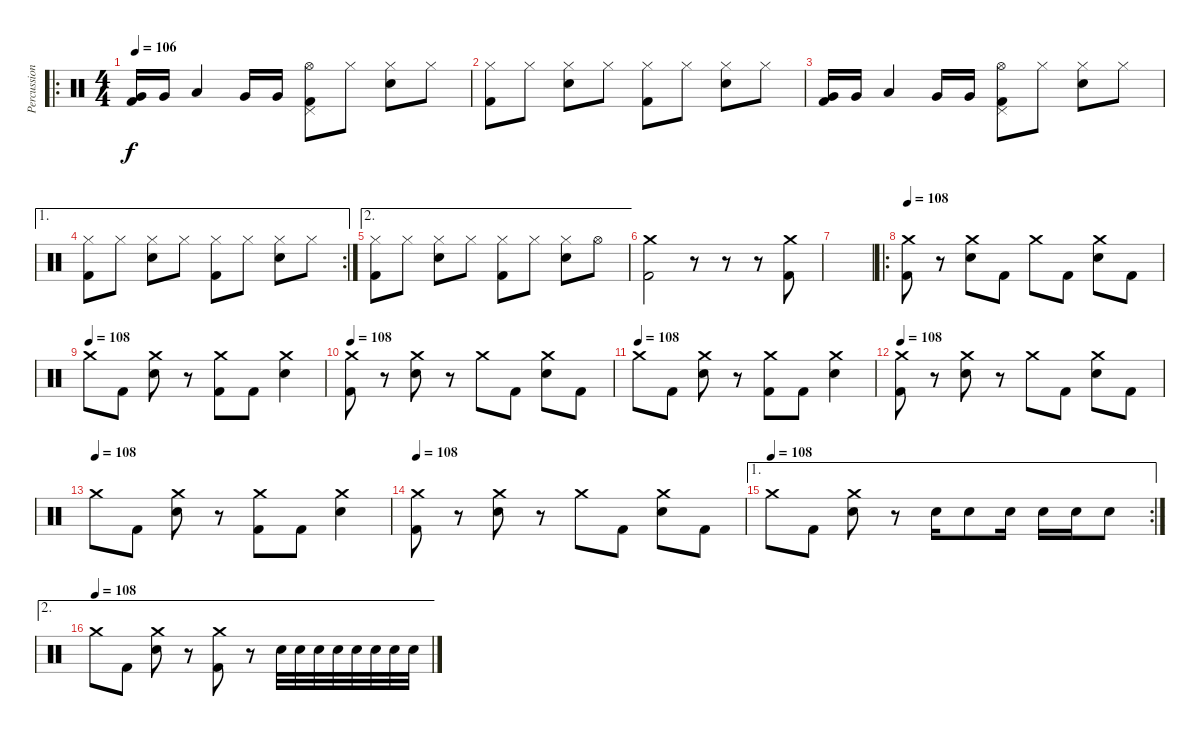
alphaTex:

\track ("Percussion" "Percussion") {instrument percussion}
\staff {score}
\articulation defaults
\ro
\ts (4 4)
\tempo 106
\clef neutral
\ks c
("Very Low Tom (hit)" "Kick (hit) 2").16{dy f} "Very Low Tom (hit)".16 "Low Tom (hit)".4 "Very Low Tom (hit)".16 "Very Low Tom (hit)".16 ("Pedal Hi-Hat (hit)" "Hi-Hat (open)" "Kick (hit) 2").8 "Hi-Hat (closed)".8 ("Hi-Hat (closed)" "Electric Snare (hit)").8 "Hi-Hat (closed)".8 |
("Hi-Hat (closed)" "Kick (hit) 2").8 "Hi-Hat (closed)".8 ("Hi-Hat (closed)" "Electric Snare (hit)").8 "Hi-Hat (closed)".8 ("Hi-Hat (closed)" "Kick (hit) 2").8 "Hi-Hat (closed)".8 ("Hi-Hat (closed)" "Electric Snare (hit)").8 "Hi-Hat (closed)".8 |
("Very Low Tom (hit)" "Kick (hit) 2").16 "Very Low Tom (hit)".16 "Low Tom (hit)".4 "Very Low Tom (hit)".16 "Very Low Tom (hit)".16 ("Pedal Hi-Hat (hit)" "Hi-Hat (open)" "Kick (hit) 2").8 "Hi-Hat (closed)".8 ("Hi-Hat (closed)" "Electric Snare (hit)").8 "Hi-Hat (closed)".8 |
\ae 1
\rc 2
("Hi-Hat (closed)" "Kick (hit) 2").8 "Hi-Hat (closed)".8 ("Hi-Hat (closed)" "Electric Snare (hit)").8 "Hi-Hat (closed)".8 ("Hi-Hat (closed)" "Kick (hit) 2").8 "Hi-Hat (closed)".8 ("Hi-Hat (closed)" "Electric Snare (hit)").8 "Hi-Hat (closed)".8 |
\ae 2
("Hi-Hat (closed)" "Kick (hit) 2").8 "Hi-Hat (closed)".8 ("Hi-Hat (closed)" "Electric Snare (hit)").8 "Hi-Hat (closed)".8 ("Hi-Hat (closed)" "Kick (hit) 2").8 "Hi-Hat (closed)".8 ("Hi-Hat (closed)" "Electric Snare (hit)").8 "Hi-Hat (open)".8 |
("Crash medium (hit)" "Kick (hit) 2").2 r.8 r.8 r.8 ("Crash medium (hit)" "Kick (hit) 2").8 |
|
\ro
\tempo 108
("Crash medium (hit)" "Kick (hit) 2").8 r.8 ("Crash medium (hit)" "Electric Snare (hit)").8 "Kick (hit) 2".8 "Crash medium (hit)".8 "Kick (hit) 2".8 ("Crash medium (hit)" "Electric Snare (hit)").8 "Kick (hit) 2".8 |
\tempo (108)
"Crash medium (hit)".8 "Kick (hit) 2".8 ("Crash medium (hit)" "Electric Snare (hit)").8 r.8 ("Crash medium (hit)" "Kick (hit) 2").8 "Kick (hit) 2".8 ("Crash medium (hit)" "Electric Snare (hit)").4 |
\tempo 108
("Crash medium (hit)" "Kick (hit) 2").8 r.8 ("Crash medium (hit)" "Electric Snare (hit)").8 r.8 "Crash medium (hit)".8 "Kick (hit) 2".8 ("Crash medium (hit)" "Electric Snare (hit)").8 "Kick (hit) 2".8 |
\tempo (108)
"Crash medium (hit)".8 "Kick (hit) 2".8 ("Crash medium (hit)" "Electric Snare (hit)").8 r.8 ("Crash medium (hit)" "Kick (hit) 2").8 "Kick (hit) 2".8 ("Crash medium (hit)" "Electric Snare (hit)").4 |
\tempo 108
("Crash medium (hit)" "Kick (hit) 2").8 r.8 ("Crash medium (hit)" "Electric Snare (hit)").8 r.8 "Crash medium (hit)".8 "Kick (hit) 2".8 ("Crash medium (hit)" "Electric Snare (hit)").8 "Kick (hit) 2".8 |
\tempo (108)
"Crash medium (hit)".8 "Kick (hit) 2".8 ("Crash medium (hit)" "Electric Snare (hit)").8 r.8 ("Crash medium (hit)" "Kick (hit) 2").8 "Kick (hit) 2".8 ("Crash medium (hit)" "Electric Snare (hit)").4 |
\tempo 108
("Crash medium (hit)" "Kick (hit) 2").8 r.8 ("Crash medium (hit)" "Electric Snare (hit)").8 r.8 "Crash medium (hit)".8 "Kick (hit) 2".8 ("Crash medium (hit)" "Electric Snare (hit)").8 "Kick (hit) 2".8 |
\ae 1
\rc 2
\tempo (108)
"Crash medium (hit)".8 "Kick (hit) 2".8 ("Crash medium (hit)" "Electric Snare (hit)").8 r.8 "Electric Snare (hit)".16 "Electric Snare (hit)".8 "Electric Snare (hit)".16 "Electric Snare (hit)".16 "Electric Snare (hit)".16 "Electric Snare (hit)".8 |
\ae 2
\tempo (108)
"Crash medium (hit)".8 "Kick (hit) 2".8 ("Crash medium (hit)" "Electric Snare (hit)").8 r.8 ("Crash medium (hit)" "Kick (hit) 2").8 r.8 "Electric Snare (hit)".32 "Electric Snare (hit)".32 "Electric Snare (hit)".32 "Electric Snare (hit)".32 "Electric Snare (hit)".32 "Electric Snare (hit)".32 "Electric Snare (hit)".32 "Electric Snare (hit)".32
